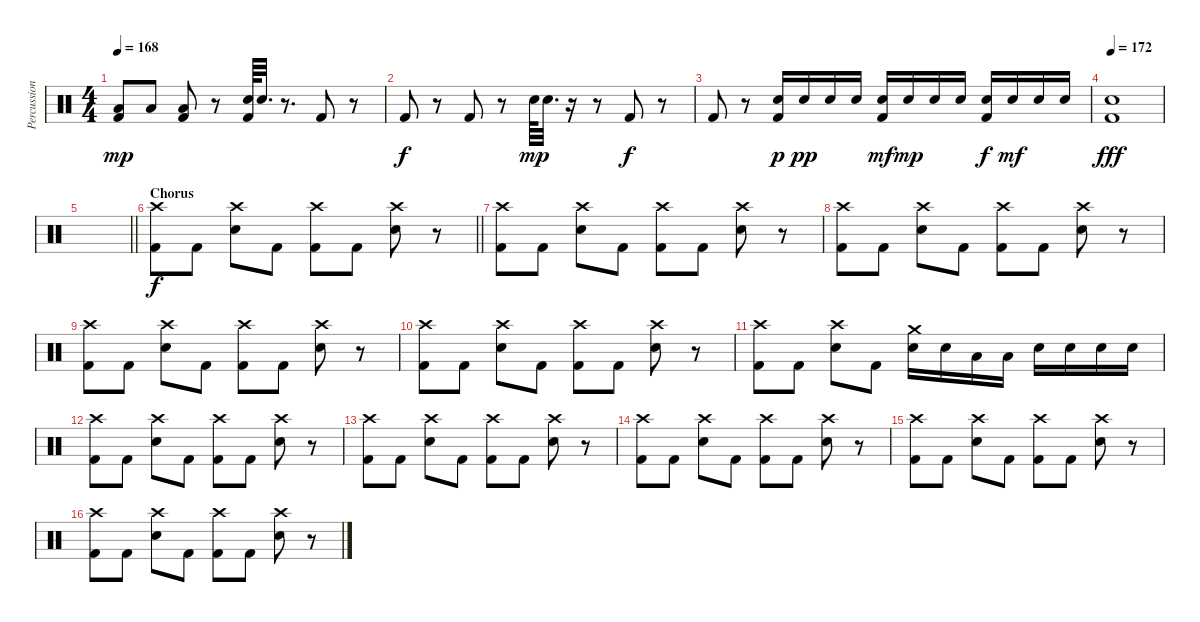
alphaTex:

\track ("Percussion" "Percussion") {instrument percussion}
\staff {score}
\articulation defaults
\ts (4 4)
\tempo 168
\clef neutral
\ks c
("Low Tom (hit)" "Kick (hit) 2").8{dy mp} "Low Floor Tom (hit)".8 ("Low Floor Tom (hit)" "Kick (hit) 2").8 r.8 ("Snare (hit) 2" "Kick (hit) 2").64 "Snare (hit) 2".32{d} r.8{d} "Kick (hit) 2".8 r.8 |
"Kick (hit) 2".8{dy f} r.8 "Kick (hit) 2".8 r.8 "Snare (hit) 2".64{dy mp} "Snare (hit) 2".32{d} r.16 r.8 "Kick (hit) 2".8{dy f} r.8 |
"Kick (hit) 2".8 r.8 ("Snare (hit) 2" "Kick (hit) 2").16{dy p} "Snare (hit) 2".16{dy pp} "Snare (hit) 2".16 "Snare (hit) 2".16 ("Snare (hit) 2" "Kick (hit) 2").16{dy mf} "Snare (hit) 2".16{dy mp} "Snare (hit) 2".16 "Snare (hit) 2".16 ("Snare (hit) 2" "Kick (hit) 2").16{dy f} "Snare (hit) 2".16{dy mf} "Snare (hit) 2".16 "Snare (hit) 2".16 |
\tempo 172
("Snare (hit) 2" "Kick (hit) 2").1{dy fff} |
\barLineRight lightlight
|
\section ("" "Chorus")
\barLineRight lightlight
("Crash high (hit)" "Kick (hit) 2").8{dy f} "Kick (hit) 2".8 ("Crash high (hit)" "Snare (hit) 2").8 "Kick (hit) 2".8 ("Crash high (hit)" "Kick (hit) 2").8 "Kick (hit) 2".8 ("Crash high (hit)" "Snare (hit) 2").8 r.8 |
("Crash high (hit)" "Kick (hit) 2").8 "Kick (hit) 2".8 ("Crash high (hit)" "Snare (hit) 2").8 "Kick (hit) 2".8 ("Crash high (hit)" "Kick (hit) 2").8 "Kick (hit) 2".8 ("Crash high (hit)" "Snare (hit) 2").8 r.8 |
("Crash high (hit)" "Kick (hit) 2").8 "Kick (hit) 2".8 ("Crash high (hit)" "Snare (hit) 2").8 "Kick (hit) 2".8 ("Crash high (hit)" "Kick (hit) 2").8 "Kick (hit) 2".8 ("Crash high (hit)" "Snare (hit) 2").8 r.8 |
("Crash high (hit)" "Kick (hit) 2").8 "Kick (hit) 2".8 ("Crash high (hit)" "Snare (hit) 2").8 "Kick (hit) 2".8 ("Crash high (hit)" "Kick (hit) 2").8 "Kick (hit) 2".8 ("Crash high (hit)" "Snare (hit) 2").8 r.8 |
("Crash high (hit)" "Kick (hit) 2").8 "Kick (hit) 2".8 ("Crash high (hit)" "Snare (hit) 2").8 "Kick (hit) 2".8 ("Crash high (hit)" "Kick (hit) 2").8 "Kick (hit) 2".8 ("Crash high (hit)" "Snare (hit) 2").8 r.8 |
("Crash high (hit)" "Kick (hit) 2").8 "Kick (hit) 2".8 ("Crash high (hit)" "Snare (hit) 2").8 "Kick (hit) 2".8 ("Crash medium (hit)" "Snare (hit) 2").16 "Snare (hit) 2".16 "Low Tom (hit)".16 "Low Floor Tom (hit)".16 "Snare (hit) 2".16 "Snare (hit) 2".16 "Snare (hit) 2".16 "Snare (hit) 2".16 |
("Crash high (hit)" "Kick (hit) 2").8 "Kick (hit) 2".8 ("Crash high (hit)" "Snare (hit) 2").8 "Kick (hit) 2".8 ("Crash high (hit)" "Kick (hit) 2").8 "Kick (hit) 2".8 ("Crash high (hit)" "Snare (hit) 2").8 r.8 |
("Crash high (hit)" "Kick (hit) 2").8 "Kick (hit) 2".8 ("Crash high (hit)" "Snare (hit) 2").8 "Kick (hit) 2".8 ("Crash high (hit)" "Kick (hit) 2").8 "Kick (hit) 2".8 ("Crash high (hit)" "Snare (hit) 2").8 r.8 |
("Crash high (hit)" "Kick (hit) 2").8 "Kick (hit) 2".8 ("Crash high (hit)" "Snare (hit) 2").8 "Kick (hit) 2".8 ("Crash high (hit)" "Kick (hit) 2").8 "Kick (hit) 2".8 ("Crash high (hit)" "Snare (hit) 2").8 r.8 |
("Crash high (hit)" "Kick (hit) 2").8 "Kick (hit) 2".8 ("Crash high (hit)" "Snare (hit) 2").8 "Kick (hit) 2".8 ("Crash high (hit)" "Kick (hit) 2").8 "Kick (hit) 2".8 ("Crash high (hit)" "Snare (hit) 2").8 r.8 |
("Crash high (hit)" "Kick (hit) 2").8 "Kick (hit) 2".8 ("Crash high (hit)" "Snare (hit) 2").8 "Kick (hit) 2".8 ("Crash high (hit)" "Kick (hit) 2").8 "Kick (hit) 2".8 ("Crash high (hit)" "Snare (hit) 2").8 r.8
